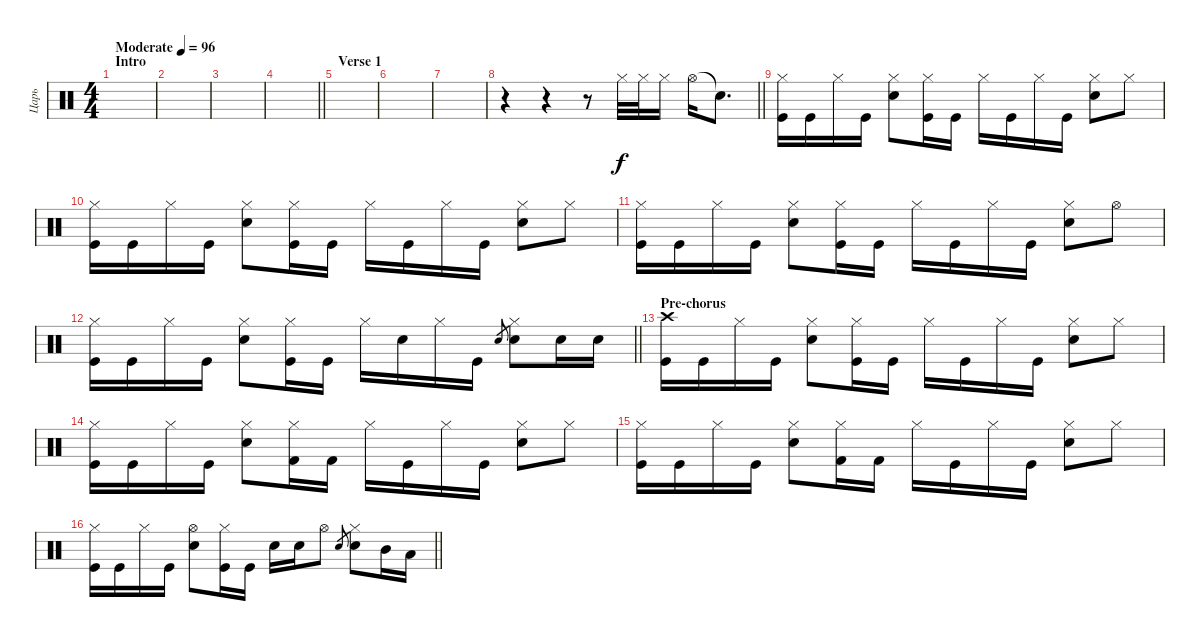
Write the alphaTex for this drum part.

\track ("Царь" "Царь") {instrument percussion}
\staff {score}
\articulation defaults
\ts (4 4)
\section ("" "Intro")
\tempo (96 "Moderate")
\clef neutral
\ks c
|
|
|
\barLineRight lightlight
|
\section ("" "Verse 1")
|
|
|
\barLineRight lightlight
r.4 r.4 r.8 "Hi-Hat (closed)".32 "Hi-Hat (closed)".32 "Hi-Hat (closed)".16 "Hi-Hat (open)".16 "Snare (hit)"{t}.8{d} |
\section ("" "")
("Kick (hit)" "Hi-Hat (closed)").16 "Kick (hit)".16 "Hi-Hat (closed)".16 "Kick (hit)".16 ("Electric Snare (hit)" "Hi-Hat (closed)").8 ("Kick (hit)" "Hi-Hat (closed)").16 "Kick (hit)".16 "Hi-Hat (closed)".16 "Kick (hit)".16 "Hi-Hat (closed)".16 "Kick (hit)".16 ("Electric Snare (hit)" "Hi-Hat (closed)").8 "Hi-Hat (closed)".8 |
("Kick (hit)" "Hi-Hat (closed)").16 "Kick (hit)".16 "Hi-Hat (closed)".16 "Kick (hit)".16 ("Electric Snare (hit)" "Hi-Hat (closed)").8 ("Kick (hit)" "Hi-Hat (closed)").16 "Kick (hit)".16 "Hi-Hat (closed)".16 "Kick (hit)".16 "Hi-Hat (closed)".16 "Kick (hit)".16 ("Electric Snare (hit)" "Hi-Hat (closed)").8 "Hi-Hat (closed)".8 |
("Kick (hit)" "Hi-Hat (closed)").16 "Kick (hit)".16 "Hi-Hat (closed)".16 "Kick (hit)".16 ("Electric Snare (hit)" "Hi-Hat (closed)").8 ("Kick (hit)" "Hi-Hat (closed)").16 "Kick (hit)".16 "Hi-Hat (closed)".16 "Kick (hit)".16 "Hi-Hat (closed)".16 "Kick (hit)".16 ("Electric Snare (hit)" "Hi-Hat (closed)").8 "Hi-Hat (open)".8 |
\barLineRight lightlight
("Kick (hit)" "Hi-Hat (closed)").16 "Kick (hit)".16 "Hi-Hat (closed)".16 "Kick (hit)".16 ("Electric Snare (hit)" "Hi-Hat (closed)").8 ("Kick (hit)" "Hi-Hat (closed)").16 "Kick (hit)".16 "Hi-Hat (closed)".16 "Electric Snare (hit)".16 "Hi-Hat (closed)".16 "Kick (hit)".16 "Electric Snare (hit)".8{gr} ("Electric Snare (hit)" "Hi-Hat (closed)").8 "Electric Snare (hit)".16 "Electric Snare (hit)".16 |
\section ("" "Pre-chorus")
("Crash high (hit)" "Kick (hit)").16 "Kick (hit)".16 "Hi-Hat (closed)".16 "Kick (hit)".16 ("Electric Snare (hit)" "Hi-Hat (closed)").8 ("Kick (hit)" "Hi-Hat (closed)").16 "Kick (hit)".16 "Hi-Hat (closed)".16 "Kick (hit)".16 "Hi-Hat (closed)".16 "Kick (hit)".16 ("Electric Snare (hit)" "Hi-Hat (closed)").8 "Hi-Hat (closed)".8 |
("Kick (hit)" "Hi-Hat (closed)").16 "Kick (hit)".16 "Hi-Hat (closed)".16 "Kick (hit)".16 ("Electric Snare (hit)" "Hi-Hat (closed)").8 ("Kick (hit) 2" "Hi-Hat (closed)").16 "Kick (hit) 2".16 "Hi-Hat (closed)".16 "Kick (hit)".16 "Hi-Hat (closed)".16 "Kick (hit)".16 ("Electric Snare (hit)" "Hi-Hat (closed)").8 "Hi-Hat (closed)".8 |
("Kick (hit)" "Hi-Hat (closed)").16 "Kick (hit)".16 "Hi-Hat (closed)".16 "Kick (hit)".16 ("Electric Snare (hit)" "Hi-Hat (closed)").8 ("Kick (hit) 2" "Hi-Hat (closed)").16 "Kick (hit) 2".16 "Hi-Hat (closed)".16 "Kick (hit)".16 "Hi-Hat (closed)".16 "Kick (hit)".16 ("Electric Snare (hit)" "Hi-Hat (closed)").8 "Hi-Hat (closed)".8 |
\barLineRight lightlight
("Kick (hit)" "Hi-Hat (closed)").16 "Kick (hit)".16 "Hi-Hat (closed)".16 "Kick (hit)".16 ("Electric Snare (hit)" "Hi-Hat (open)").8 ("Kick (hit)" "Hi-Hat (closed)").16 "Kick (hit)".16 "Electric Snare (hit)".16 "Electric Snare (hit)".16 "Hi-Hat (open)".8 "Electric Snare (hit)".8{gr} ("Electric Snare (hit)" "Hi-Hat (closed)").8 "Mid Tom (hit)".16 "Low Tom (hit)".16
